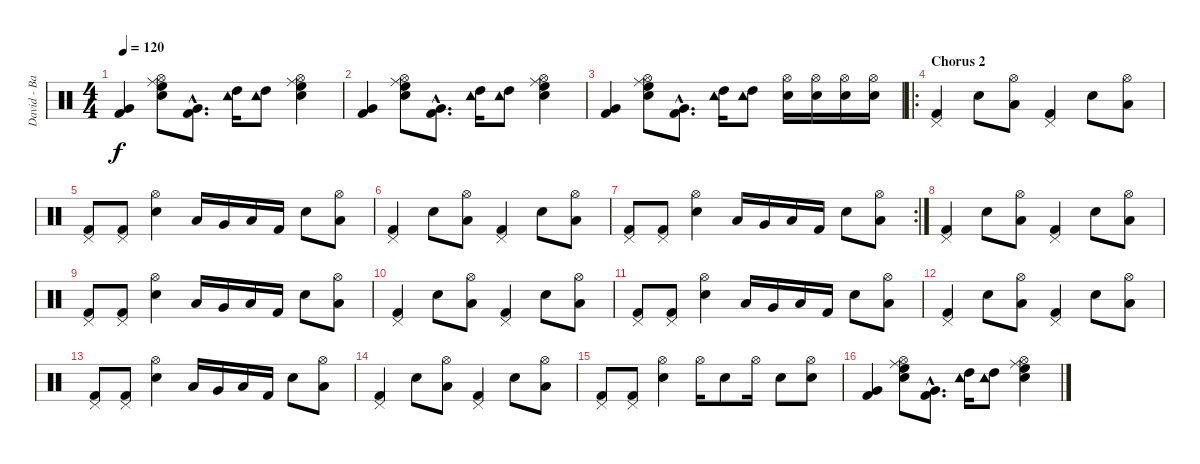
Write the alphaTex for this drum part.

\track ("David - Batterie" "David - Ba") {instrument percussion}
\staff {score}
\articulation defaults
\ts (4 4)
\tempo 120
\clef neutral
\ks c
("Kick (hit) 2" "Very Low Tom (hit)").4{dy f} ("Snare (hit) 2" "Hi-Hat (open)" "High Floor Tom (hit)" "Ride (middle)").8 ("Kick (hit) 2"{hac} "Very Low Tom (hit)"{hac}).8{d} ("High Tom (hit)" "Tambourine (hit)").16 ("High Tom (hit)" "Tambourine (hit)").8 ("Snare (hit) 2" "Hi-Hat (open)" "High Floor Tom (hit)" "Ride (middle)").4 |
("Kick (hit) 2" "Very Low Tom (hit)").4 ("Snare (hit) 2" "Hi-Hat (open)" "High Floor Tom (hit)" "Ride (middle)").8 ("Kick (hit) 2"{hac} "Very Low Tom (hit)"{hac}).8{d} ("High Tom (hit)" "Tambourine (hit)").16 ("High Tom (hit)" "Tambourine (hit)").8 ("Snare (hit) 2" "Hi-Hat (open)" "High Floor Tom (hit)" "Ride (middle)").4 |
("Kick (hit) 2" "Very Low Tom (hit)").4 ("Snare (hit) 2" "Hi-Hat (open)" "High Floor Tom (hit)" "Ride (middle)").8 ("Kick (hit) 2"{hac} "Very Low Tom (hit)"{hac}).8{d} ("High Tom (hit)" "Tambourine (hit)").16 ("High Tom (hit)" "Tambourine (hit)").8 ("Snare (hit) 2" "Hi-Hat (open)").16 ("Snare (hit) 2" "Hi-Hat (open)").16 ("Snare (hit) 2" "Hi-Hat (open)").16 ("Snare (hit) 2" "Hi-Hat (open)").16 |
\ro
\section ("" "Chorus 2")
("Kick (hit) 2" "Pedal Hi-Hat (hit)").4 "Electric Snare (hit)".8 ("Hi-Hat (open)" "Low Tom (hit)").8 ("Kick (hit) 2" "Pedal Hi-Hat (hit)").4 "Electric Snare (hit)".8 ("Hi-Hat (open)" "Low Tom (hit)").8 |
("Kick (hit) 2" "Pedal Hi-Hat (hit)").8 ("Kick (hit) 2" "Pedal Hi-Hat (hit)").8 ("Electric Snare (hit)" "Hi-Hat (open)").4 "Low Tom (hit)".16 "Very Low Tom (hit)".16 "Low Floor Tom (hit)".16 "Kick (hit) 2".16 "Electric Snare (hit)".8 ("Low Tom (hit)" "Hi-Hat (open)").8 |
("Kick (hit) 2" "Pedal Hi-Hat (hit)").4 "Electric Snare (hit)".8 ("Hi-Hat (open)" "Low Tom (hit)").8 ("Kick (hit) 2" "Pedal Hi-Hat (hit)").4 "Electric Snare (hit)".8 ("Hi-Hat (open)" "Low Tom (hit)").8 |
\rc 2
("Kick (hit) 2" "Pedal Hi-Hat (hit)").8 ("Kick (hit) 2" "Pedal Hi-Hat (hit)").8 ("Electric Snare (hit)" "Hi-Hat (open)").4 "Low Tom (hit)".16 "Very Low Tom (hit)".16 "Low Floor Tom (hit)".16 "Kick (hit) 2".16 "Electric Snare (hit)".8 ("Low Tom (hit)" "Hi-Hat (open)").8 |
("Kick (hit) 2" "Pedal Hi-Hat (hit)").4 "Electric Snare (hit)".8 ("Hi-Hat (open)" "Low Tom (hit)").8 ("Kick (hit) 2" "Pedal Hi-Hat (hit)").4 "Electric Snare (hit)".8 ("Hi-Hat (open)" "Low Tom (hit)").8 |
("Kick (hit) 2" "Pedal Hi-Hat (hit)").8 ("Kick (hit) 2" "Pedal Hi-Hat (hit)").8 ("Electric Snare (hit)" "Hi-Hat (open)").4 "Low Tom (hit)".16 "Very Low Tom (hit)".16 "Low Floor Tom (hit)".16 "Kick (hit) 2".16 "Electric Snare (hit)".8 ("Low Tom (hit)" "Hi-Hat (open)").8 |
("Kick (hit) 2" "Pedal Hi-Hat (hit)").4 "Electric Snare (hit)".8 ("Hi-Hat (open)" "Low Tom (hit)").8 ("Kick (hit) 2" "Pedal Hi-Hat (hit)").4 "Electric Snare (hit)".8 ("Hi-Hat (open)" "Low Tom (hit)").8 |
("Kick (hit) 2" "Pedal Hi-Hat (hit)").8 ("Kick (hit) 2" "Pedal Hi-Hat (hit)").8 ("Electric Snare (hit)" "Hi-Hat (open)").4 "Low Tom (hit)".16 "Very Low Tom (hit)".16 "Low Floor Tom (hit)".16 "Kick (hit) 2".16 "Electric Snare (hit)".8 ("Low Tom (hit)" "Hi-Hat (open)").8 |
("Kick (hit) 2" "Pedal Hi-Hat (hit)").4 "Electric Snare (hit)".8 ("Hi-Hat (open)" "Low Tom (hit)").8 ("Kick (hit) 2" "Pedal Hi-Hat (hit)").4 "Electric Snare (hit)".8 ("Hi-Hat (open)" "Low Tom (hit)").8 |
("Kick (hit) 2" "Pedal Hi-Hat (hit)").8 ("Kick (hit) 2" "Pedal Hi-Hat (hit)").8 ("Electric Snare (hit)" "Hi-Hat (open)").4 "Low Tom (hit)".16 "Very Low Tom (hit)".16 "Low Floor Tom (hit)".16 "Kick (hit) 2".16 "Electric Snare (hit)".8 ("Low Tom (hit)" "Hi-Hat (open)").8 |
("Kick (hit) 2" "Pedal Hi-Hat (hit)").4 "Electric Snare (hit)".8 ("Hi-Hat (open)" "Low Tom (hit)").8 ("Kick (hit) 2" "Pedal Hi-Hat (hit)").4 "Electric Snare (hit)".8 ("Hi-Hat (open)" "Low Tom (hit)").8 |
("Kick (hit) 2" "Pedal Hi-Hat (hit)").8 ("Kick (hit) 2" "Pedal Hi-Hat (hit)").8 ("Electric Snare (hit)" "Hi-Hat (open)").4 "Hi-Hat (open)".16 "Electric Snare (hit)".8 "Hi-Hat (open)".16 "Electric Snare (hit)".8 ("Electric Snare (hit)" "Hi-Hat (open)").8 |
("Kick (hit) 2" "Very Low Tom (hit)").4 ("Snare (hit) 2" "Hi-Hat (open)" "High Floor Tom (hit)" "Ride (middle)").8 ("Kick (hit) 2"{hac} "Very Low Tom (hit)"{hac}).8{d} ("High Tom (hit)" "Tambourine (hit)").16 ("High Tom (hit)" "Tambourine (hit)").8 ("Snare (hit) 2" "Hi-Hat (open)" "High Floor Tom (hit)" "Ride (middle)").4
